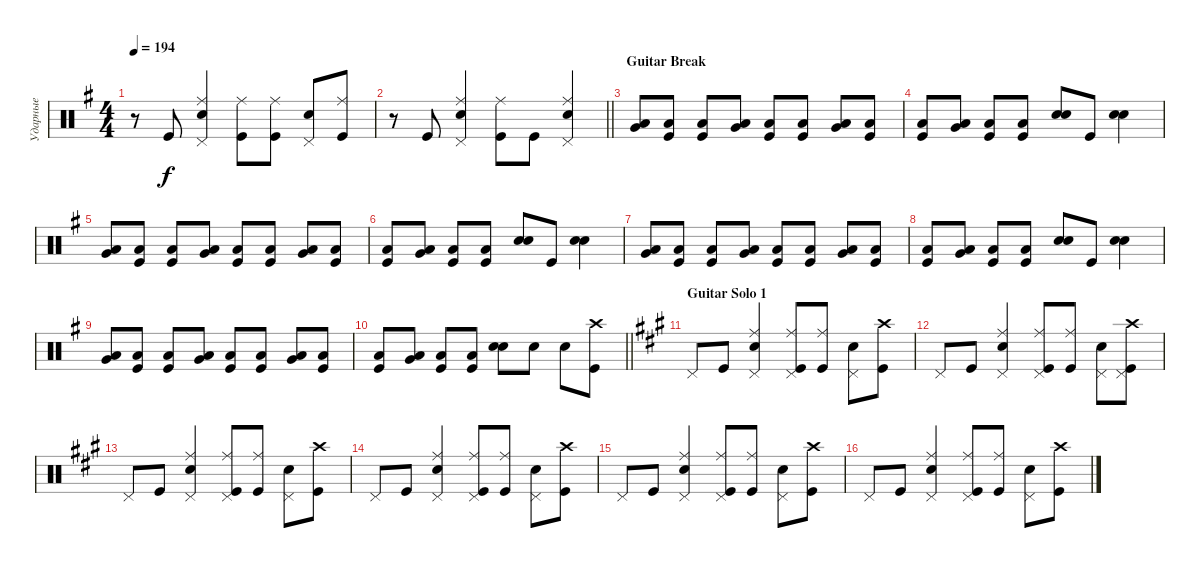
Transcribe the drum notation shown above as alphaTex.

\track ("Ударные" "Ударные") {instrument percussion}
\staff {score}
\articulation defaults
\ts (4 4)
\tempo 194
\clef neutral
\ks eminor
r.8{dy f} "Kick (hit)".8 ("Snare (hit) 2" "Ride (middle)" "Pedal Hi-Hat (hit)").4 ("Kick (hit)" "Ride (middle)").8 ("Kick (hit)" "Ride (middle)").8 ("Snare (hit) 2" "Pedal Hi-Hat (hit)").8 ("Ride (middle)" "Kick (hit)").8 |
\barLineRight lightlight
r.8 "Kick (hit)".8 ("Snare (hit) 2" "Ride (middle)" "Pedal Hi-Hat (hit)").4 ("Kick (hit)" "Ride (middle)").8 "Kick (hit)".8 ("Pedal Hi-Hat (hit)" "Snare (hit) 2" "Ride (middle)").4 |
\section ("" "Guitar Break")
("Very Low Tom (hit)" "Low Floor Tom (hit)").8{bd 240} ("Low Floor Tom (hit)" "Kick (hit)").8 ("Low Floor Tom (hit)" "Kick (hit)").8 ("Low Floor Tom (hit)" "Very Low Tom (hit)").8{bd 240} ("Low Floor Tom (hit)" "Kick (hit)").8 ("Low Floor Tom (hit)" "Kick (hit)").8 ("Very Low Tom (hit)" "Low Floor Tom (hit)").8{bd 240} ("Low Floor Tom (hit)" "Kick (hit)").8 |
("Low Floor Tom (hit)" "Kick (hit)").8 ("Very Low Tom (hit)" "Low Floor Tom (hit)").8{bd 240} ("Low Floor Tom (hit)" "Kick (hit)").8 ("Low Floor Tom (hit)" "Kick (hit)").8 ("Snare (hit) 2" "Snare (hit) 2").8{bd 240} "Kick (hit)".8 ("Snare (hit) 2" "Snare (hit) 2").4{bd 240} |
("Very Low Tom (hit)" "Low Floor Tom (hit)").8{bd 240} ("Low Floor Tom (hit)" "Kick (hit)").8 ("Low Floor Tom (hit)" "Kick (hit)").8 ("Low Floor Tom (hit)" "Very Low Tom (hit)").8{bd 240} ("Low Floor Tom (hit)" "Kick (hit)").8 ("Low Floor Tom (hit)" "Kick (hit)").8 ("Very Low Tom (hit)" "Low Floor Tom (hit)").8{bd 240} ("Low Floor Tom (hit)" "Kick (hit)").8 |
("Low Floor Tom (hit)" "Kick (hit)").8 ("Very Low Tom (hit)" "Low Floor Tom (hit)").8{bd 240} ("Low Floor Tom (hit)" "Kick (hit)").8 ("Low Floor Tom (hit)" "Kick (hit)").8 ("Snare (hit) 2" "Snare (hit) 2").8{bd 240} "Kick (hit)".8 ("Snare (hit) 2" "Snare (hit) 2").4{bd 240} |
("Very Low Tom (hit)" "Low Floor Tom (hit)").8{bd 240} ("Low Floor Tom (hit)" "Kick (hit)").8 ("Low Floor Tom (hit)" "Kick (hit)").8 ("Low Floor Tom (hit)" "Very Low Tom (hit)").8{bd 240} ("Low Floor Tom (hit)" "Kick (hit)").8 ("Low Floor Tom (hit)" "Kick (hit)").8 ("Very Low Tom (hit)" "Low Floor Tom (hit)").8{bd 240} ("Low Floor Tom (hit)" "Kick (hit)").8 |
("Low Floor Tom (hit)" "Kick (hit)").8 ("Very Low Tom (hit)" "Low Floor Tom (hit)").8{bd 240} ("Low Floor Tom (hit)" "Kick (hit)").8 ("Low Floor Tom (hit)" "Kick (hit)").8 ("Snare (hit) 2" "Snare (hit) 2").8{bd 240} "Kick (hit)".8 ("Snare (hit) 2" "Snare (hit) 2").4{bd 240} |
("Very Low Tom (hit)" "Low Floor Tom (hit)").8{bd 240} ("Low Floor Tom (hit)" "Kick (hit)").8 ("Low Floor Tom (hit)" "Kick (hit)").8 ("Low Floor Tom (hit)" "Very Low Tom (hit)").8{bd 240} ("Low Floor Tom (hit)" "Kick (hit)").8 ("Low Floor Tom (hit)" "Kick (hit)").8 ("Very Low Tom (hit)" "Low Floor Tom (hit)").8{bd 240} ("Low Floor Tom (hit)" "Kick (hit)").8 |
\barLineRight lightlight
("Low Floor Tom (hit)" "Kick (hit)").8 ("Very Low Tom (hit)" "Low Floor Tom (hit)").8{bd 240} ("Low Floor Tom (hit)" "Kick (hit)").8 ("Low Floor Tom (hit)" "Kick (hit)").8 ("Snare (hit) 2" "Snare (hit) 2").8{bd 240} "Snare (hit) 2".8 "Snare (hit) 2".8 ("Kick (hit)" "Crash high (hit)").8 |
\section ("" "Guitar Solo 1")
\ks f#minor "Pedal Hi-Hat (hit)".8 "Kick (hit)".8
("Snare (hit) 2" "Ride (middle)" "Pedal Hi-Hat (hit)").4 ("Kick (hit)" "Ride (middle)" "Pedal Hi-Hat (hit)").8 ("Ride (middle)" "Kick (hit)").8 ("Snare (hit) 2" "Pedal Hi-Hat (hit)").8 ("Kick (hit)" "Crash high (hit)").8 |
"Pedal Hi-Hat (hit)".8 "Kick (hit)".8 ("Snare (hit) 2" "Ride (middle)" "Pedal Hi-Hat (hit)").4 ("Kick (hit)" "Ride (middle)" "Pedal Hi-Hat (hit)").8 ("Ride (middle)" "Kick (hit)").8 ("Snare (hit) 2" "Pedal Hi-Hat (hit)").8 ("Kick (hit)" "Crash high (hit)" "Pedal Hi-Hat (hit)").8 |
"Pedal Hi-Hat (hit)".8 "Kick (hit)".8 ("Snare (hit) 2" "Ride (middle)" "Pedal Hi-Hat (hit)").4 ("Kick (hit)" "Ride (middle)" "Pedal Hi-Hat (hit)").8 ("Ride (middle)" "Kick (hit)").8 ("Snare (hit) 2" "Pedal Hi-Hat (hit)").8 ("Kick (hit)" "Crash high (hit)").8 |
"Pedal Hi-Hat (hit)".8 "Kick (hit)".8 ("Snare (hit) 2" "Ride (middle)" "Pedal Hi-Hat (hit)").4 ("Kick (hit)" "Ride (middle)" "Pedal Hi-Hat (hit)").8 ("Ride (middle)" "Kick (hit)").8 ("Snare (hit) 2" "Pedal Hi-Hat (hit)").8 ("Kick (hit)" "Crash high (hit)").8 |
"Pedal Hi-Hat (hit)".8 "Kick (hit)".8 ("Snare (hit) 2" "Ride (middle)" "Pedal Hi-Hat (hit)").4 ("Kick (hit)" "Ride (middle)" "Pedal Hi-Hat (hit)").8 ("Ride (middle)" "Kick (hit)").8 ("Snare (hit) 2" "Pedal Hi-Hat (hit)").8 ("Kick (hit)" "Crash high (hit)").8 |
"Pedal Hi-Hat (hit)".8 "Kick (hit)".8 ("Snare (hit) 2" "Ride (middle)" "Pedal Hi-Hat (hit)").4 ("Kick (hit)" "Ride (middle)" "Pedal Hi-Hat (hit)").8 ("Ride (middle)" "Kick (hit)").8 ("Snare (hit) 2" "Pedal Hi-Hat (hit)").8 ("Kick (hit)" "Crash high (hit)").8
